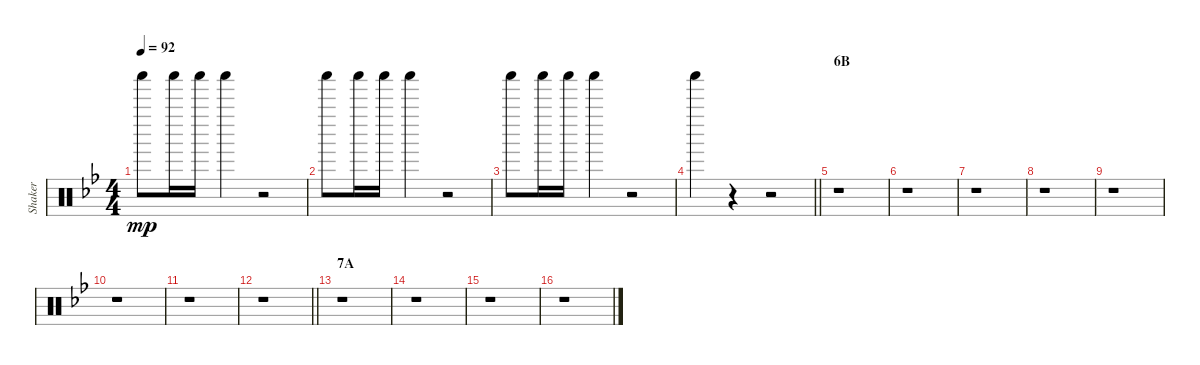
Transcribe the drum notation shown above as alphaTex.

\track ("Shaker" "Shaker") {instrument percussion}
\staff {score}
\articulation defaults
\ts (4 4)
\tempo 92
\clef neutral
\ks bb "Shaker (hit)".8{dy mp} "Shaker (hit)".16 "Shaker (hit)".16 "Shaker (hit)".4
r.2 |
"Shaker (hit)".8 "Shaker (hit)".16 "Shaker (hit)".16 "Shaker (hit)".4 r.2 |
"Shaker (hit)".8 "Shaker (hit)".16 "Shaker (hit)".16 "Shaker (hit)".4 r.2 |
\barLineRight lightlight "Shaker (hit)".4
r.4 r.2 |
\section ("" "6B")
r.1 |
r.1 |
r.1 |
r.1 |
r.1 |
r.1 |
r.1 |
\barLineRight lightlight
r.1 |
\section ("" "7A")
r.1 |
r.1 |
r.1 |
r.1
